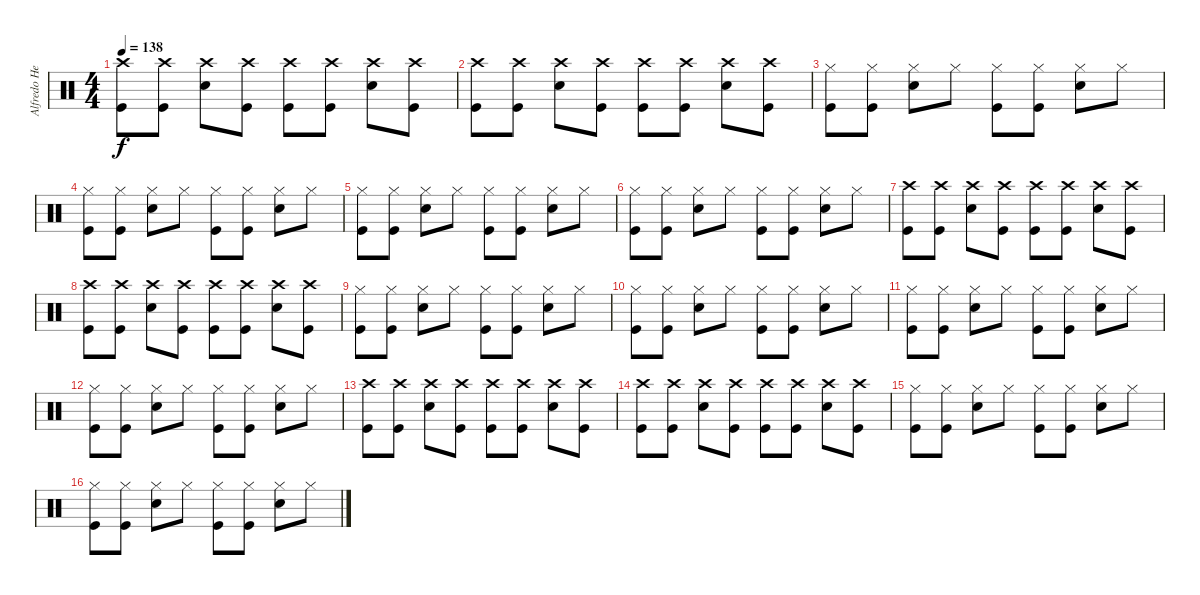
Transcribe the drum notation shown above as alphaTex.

\track ("Alfredo Hernandez" "Alfredo He") {instrument percussion}
\staff {score}
\articulation defaults
\ts (4 4)
\tempo 138
\clef neutral
\ks c
("Kick (hit)" "Crash high (hit)").8{dy f} ("Kick (hit)" "Crash high (hit)").8 ("Snare (hit) 2" "Crash high (hit)").8 ("Kick (hit)" "Crash high (hit)").8 ("Kick (hit)" "Crash high (hit)").8 ("Kick (hit)" "Crash high (hit)").8 ("Snare (hit) 2" "Crash high (hit)").8 ("Kick (hit)" "Crash high (hit)").8 |
("Kick (hit)" "Crash high (hit)").8 ("Kick (hit)" "Crash high (hit)").8 ("Snare (hit) 2" "Crash high (hit)").8 ("Kick (hit)" "Crash high (hit)").8 ("Kick (hit)" "Crash high (hit)").8 ("Kick (hit)" "Crash high (hit)").8 ("Snare (hit) 2" "Crash high (hit)").8 ("Kick (hit)" "Crash high (hit)").8 |
("Kick (hit)" "Hi-Hat (closed)").8 ("Kick (hit)" "Hi-Hat (closed)").8 ("Snare (hit) 2" "Hi-Hat (closed)").8 "Hi-Hat (closed)".8 ("Kick (hit)" "Hi-Hat (closed)").8 ("Kick (hit)" "Hi-Hat (closed)").8 ("Snare (hit) 2" "Hi-Hat (closed)").8 "Hi-Hat (closed)".8 |
("Kick (hit)" "Hi-Hat (closed)").8 ("Kick (hit)" "Hi-Hat (closed)").8 ("Snare (hit) 2" "Hi-Hat (closed)").8 "Hi-Hat (closed)".8 ("Kick (hit)" "Hi-Hat (closed)").8 ("Kick (hit)" "Hi-Hat (closed)").8 ("Snare (hit) 2" "Hi-Hat (closed)").8 "Hi-Hat (closed)".8 |
("Kick (hit)" "Hi-Hat (closed)").8 ("Kick (hit)" "Hi-Hat (closed)").8 ("Snare (hit) 2" "Hi-Hat (closed)").8 "Hi-Hat (closed)".8 ("Kick (hit)" "Hi-Hat (closed)").8 ("Kick (hit)" "Hi-Hat (closed)").8 ("Snare (hit) 2" "Hi-Hat (closed)").8 "Hi-Hat (closed)".8 |
("Kick (hit)" "Hi-Hat (closed)").8 ("Kick (hit)" "Hi-Hat (closed)").8 ("Snare (hit) 2" "Hi-Hat (closed)").8 "Hi-Hat (closed)".8 ("Kick (hit)" "Hi-Hat (closed)").8 ("Kick (hit)" "Hi-Hat (closed)").8 ("Snare (hit) 2" "Hi-Hat (closed)").8 "Hi-Hat (closed)".8 |
("Kick (hit)" "Crash high (hit)").8 ("Kick (hit)" "Crash high (hit)").8 ("Snare (hit) 2" "Crash high (hit)").8 ("Kick (hit)" "Crash high (hit)").8 ("Kick (hit)" "Crash high (hit)").8 ("Kick (hit)" "Crash high (hit)").8 ("Snare (hit) 2" "Crash high (hit)").8 ("Kick (hit)" "Crash high (hit)").8 |
("Kick (hit)" "Crash high (hit)").8 ("Kick (hit)" "Crash high (hit)").8 ("Snare (hit) 2" "Crash high (hit)").8 ("Kick (hit)" "Crash high (hit)").8 ("Kick (hit)" "Crash high (hit)").8 ("Kick (hit)" "Crash high (hit)").8 ("Snare (hit) 2" "Crash high (hit)").8 ("Kick (hit)" "Crash high (hit)").8 |
("Kick (hit)" "Hi-Hat (closed)").8 ("Kick (hit)" "Hi-Hat (closed)").8 ("Snare (hit) 2" "Hi-Hat (closed)").8 "Hi-Hat (closed)".8 ("Kick (hit)" "Hi-Hat (closed)").8 ("Kick (hit)" "Hi-Hat (closed)").8 ("Snare (hit) 2" "Hi-Hat (closed)").8 "Hi-Hat (closed)".8 |
("Kick (hit)" "Hi-Hat (closed)").8 ("Kick (hit)" "Hi-Hat (closed)").8 ("Snare (hit) 2" "Hi-Hat (closed)").8 "Hi-Hat (closed)".8 ("Kick (hit)" "Hi-Hat (closed)").8 ("Kick (hit)" "Hi-Hat (closed)").8 ("Snare (hit) 2" "Hi-Hat (closed)").8 "Hi-Hat (closed)".8 |
("Kick (hit)" "Hi-Hat (closed)").8 ("Kick (hit)" "Hi-Hat (closed)").8 ("Snare (hit) 2" "Hi-Hat (closed)").8 "Hi-Hat (closed)".8 ("Kick (hit)" "Hi-Hat (closed)").8 ("Kick (hit)" "Hi-Hat (closed)").8 ("Snare (hit) 2" "Hi-Hat (closed)").8 "Hi-Hat (closed)".8 |
("Kick (hit)" "Hi-Hat (closed)").8 ("Kick (hit)" "Hi-Hat (closed)").8 ("Snare (hit) 2" "Hi-Hat (closed)").8 "Hi-Hat (closed)".8 ("Kick (hit)" "Hi-Hat (closed)").8 ("Kick (hit)" "Hi-Hat (closed)").8 ("Snare (hit) 2" "Hi-Hat (closed)").8 "Hi-Hat (closed)".8 |
("Kick (hit)" "Crash high (hit)").8 ("Kick (hit)" "Crash high (hit)").8 ("Snare (hit) 2" "Crash high (hit)").8 ("Kick (hit)" "Crash high (hit)").8 ("Kick (hit)" "Crash high (hit)").8 ("Kick (hit)" "Crash high (hit)").8 ("Snare (hit) 2" "Crash high (hit)").8 ("Kick (hit)" "Crash high (hit)").8 |
("Kick (hit)" "Crash high (hit)").8 ("Kick (hit)" "Crash high (hit)").8 ("Snare (hit) 2" "Crash high (hit)").8 ("Kick (hit)" "Crash high (hit)").8 ("Kick (hit)" "Crash high (hit)").8 ("Kick (hit)" "Crash high (hit)").8 ("Snare (hit) 2" "Crash high (hit)").8 ("Kick (hit)" "Crash high (hit)").8 |
("Kick (hit)" "Hi-Hat (closed)").8 ("Kick (hit)" "Hi-Hat (closed)").8 ("Snare (hit) 2" "Hi-Hat (closed)").8 "Hi-Hat (closed)".8 ("Kick (hit)" "Hi-Hat (closed)").8 ("Kick (hit)" "Hi-Hat (closed)").8 ("Snare (hit) 2" "Hi-Hat (closed)").8 "Hi-Hat (closed)".8 |
("Kick (hit)" "Hi-Hat (closed)").8 ("Kick (hit)" "Hi-Hat (closed)").8 ("Snare (hit) 2" "Hi-Hat (closed)").8 "Hi-Hat (closed)".8 ("Kick (hit)" "Hi-Hat (closed)").8 ("Kick (hit)" "Hi-Hat (closed)").8 ("Snare (hit) 2" "Hi-Hat (closed)").8 "Hi-Hat (closed)".8
